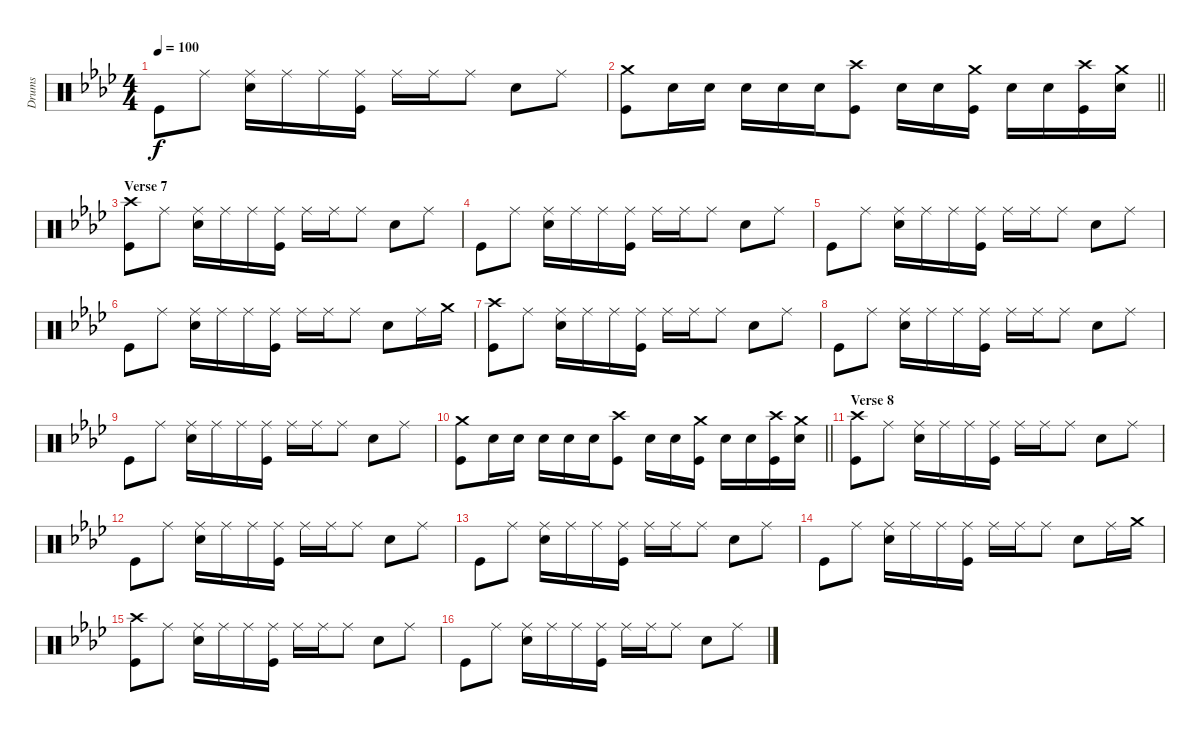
\track ("Drums" "Drums") {instrument percussion}
\staff {score}
\articulation defaults
\ts (4 4)
\tempo 100
\clef neutral
\ks ab "Kick (hit)".8{dy f} "Ride (middle)".8
("Ride (middle)" "Snare (hit) 2").16 "Ride (middle)".16 "Ride (middle)".16 ("Ride (middle)" "Kick (hit)").16 "Ride (middle)".16 "Ride (middle)".16 "Ride (middle)".8 "Snare (hit) 2".8 "Ride (middle)".8 |
\barLineRight lightlight
("Crash medium (hit)" "Kick (hit)").8 "Snare (hit) 2".16 "Snare (hit) 2".16 "Snare (hit) 2".16 "Snare (hit) 2".16 "Snare (hit) 2".16 ("Crash high (hit)" "Kick (hit)").8 "Snare (hit) 2".16 "Snare (hit) 2".16 ("Crash medium (hit)" "Kick (hit)").16 "Snare (hit) 2".16 "Snare (hit) 2".16 ("Crash high (hit)" "Kick (hit)").16 ("Crash medium (hit)" "Snare (hit) 2").16 |
\section ("" "Verse 7")
("Crash high (hit)" "Kick (hit)").8 "Ride (middle)".8 ("Ride (middle)" "Snare (hit) 2").16 "Ride (middle)".16 "Ride (middle)".16 ("Ride (middle)" "Kick (hit)").16 "Ride (middle)".16 "Ride (middle)".16 "Ride (middle)".8 "Snare (hit) 2".8 "Ride (middle)".8 |
"Kick (hit)".8 "Ride (middle)".8 ("Ride (middle)" "Snare (hit) 2").16 "Ride (middle)".16 "Ride (middle)".16 ("Ride (middle)" "Kick (hit)").16 "Ride (middle)".16 "Ride (middle)".16 "Ride (middle)".8 "Snare (hit) 2".8 "Ride (middle)".8 |
"Kick (hit)".8 "Ride (middle)".8 ("Ride (middle)" "Snare (hit) 2").16 "Ride (middle)".16 "Ride (middle)".16 ("Ride (middle)" "Kick (hit)").16 "Ride (middle)".16 "Ride (middle)".16 "Ride (middle)".8 "Snare (hit) 2".8 "Ride (middle)".8 |
"Kick (hit)".8 "Ride (middle)".8 ("Ride (middle)" "Snare (hit) 2").16 "Ride (middle)".16 "Ride (middle)".16 ("Ride (middle)" "Kick (hit)").16 "Ride (middle)".16 "Ride (middle)".16 "Ride (middle)".8 "Snare (hit) 2".8 "Ride (middle)".16 "Crash medium (hit)".16 |
("Crash high (hit)" "Kick (hit)").8 "Ride (middle)".8 ("Ride (middle)" "Snare (hit) 2").16 "Ride (middle)".16 "Ride (middle)".16 ("Ride (middle)" "Kick (hit)").16 "Ride (middle)".16 "Ride (middle)".16 "Ride (middle)".8 "Snare (hit) 2".8 "Ride (middle)".8 |
"Kick (hit)".8 "Ride (middle)".8 ("Ride (middle)" "Snare (hit) 2").16 "Ride (middle)".16 "Ride (middle)".16 ("Ride (middle)" "Kick (hit)").16 "Ride (middle)".16 "Ride (middle)".16 "Ride (middle)".8 "Snare (hit) 2".8 "Ride (middle)".8 |
"Kick (hit)".8 "Ride (middle)".8 ("Ride (middle)" "Snare (hit) 2").16 "Ride (middle)".16 "Ride (middle)".16 ("Ride (middle)" "Kick (hit)").16 "Ride (middle)".16 "Ride (middle)".16 "Ride (middle)".8 "Snare (hit) 2".8 "Ride (middle)".8 |
\barLineRight lightlight
("Crash medium (hit)" "Kick (hit)").8 "Snare (hit) 2".16 "Snare (hit) 2".16 "Snare (hit) 2".16 "Snare (hit) 2".16 "Snare (hit) 2".16 ("Crash high (hit)" "Kick (hit)").8 "Snare (hit) 2".16 "Snare (hit) 2".16 ("Crash medium (hit)" "Kick (hit)").16 "Snare (hit) 2".16 "Snare (hit) 2".16 ("Crash high (hit)" "Kick (hit)").16 ("Crash medium (hit)" "Snare (hit) 2").16 |
\section ("" "Verse 8")
("Crash high (hit)" "Kick (hit)").8 "Ride (middle)".8 ("Ride (middle)" "Snare (hit) 2").16 "Ride (middle)".16 "Ride (middle)".16 ("Ride (middle)" "Kick (hit)").16 "Ride (middle)".16 "Ride (middle)".16 "Ride (middle)".8 "Snare (hit) 2".8 "Ride (middle)".8 |
"Kick (hit)".8 "Ride (middle)".8 ("Ride (middle)" "Snare (hit) 2").16 "Ride (middle)".16 "Ride (middle)".16 ("Ride (middle)" "Kick (hit)").16 "Ride (middle)".16 "Ride (middle)".16 "Ride (middle)".8 "Snare (hit) 2".8 "Ride (middle)".8 |
"Kick (hit)".8 "Ride (middle)".8 ("Ride (middle)" "Snare (hit) 2").16 "Ride (middle)".16 "Ride (middle)".16 ("Ride (middle)" "Kick (hit)").16 "Ride (middle)".16 "Ride (middle)".16 "Ride (middle)".8 "Snare (hit) 2".8 "Ride (middle)".8 |
"Kick (hit)".8 "Ride (middle)".8 ("Ride (middle)" "Snare (hit) 2").16 "Ride (middle)".16 "Ride (middle)".16 ("Ride (middle)" "Kick (hit)").16 "Ride (middle)".16 "Ride (middle)".16 "Ride (middle)".8 "Snare (hit) 2".8 "Ride (middle)".16 "Crash medium (hit)".16 |
("Crash high (hit)" "Kick (hit)").8 "Ride (middle)".8 ("Ride (middle)" "Snare (hit) 2").16 "Ride (middle)".16 "Ride (middle)".16 ("Ride (middle)" "Kick (hit)").16 "Ride (middle)".16 "Ride (middle)".16 "Ride (middle)".8 "Snare (hit) 2".8 "Ride (middle)".8 |
"Kick (hit)".8 "Ride (middle)".8 ("Ride (middle)" "Snare (hit) 2").16 "Ride (middle)".16 "Ride (middle)".16 ("Ride (middle)" "Kick (hit)").16 "Ride (middle)".16 "Ride (middle)".16 "Ride (middle)".8 "Snare (hit) 2".8 "Ride (middle)".8
